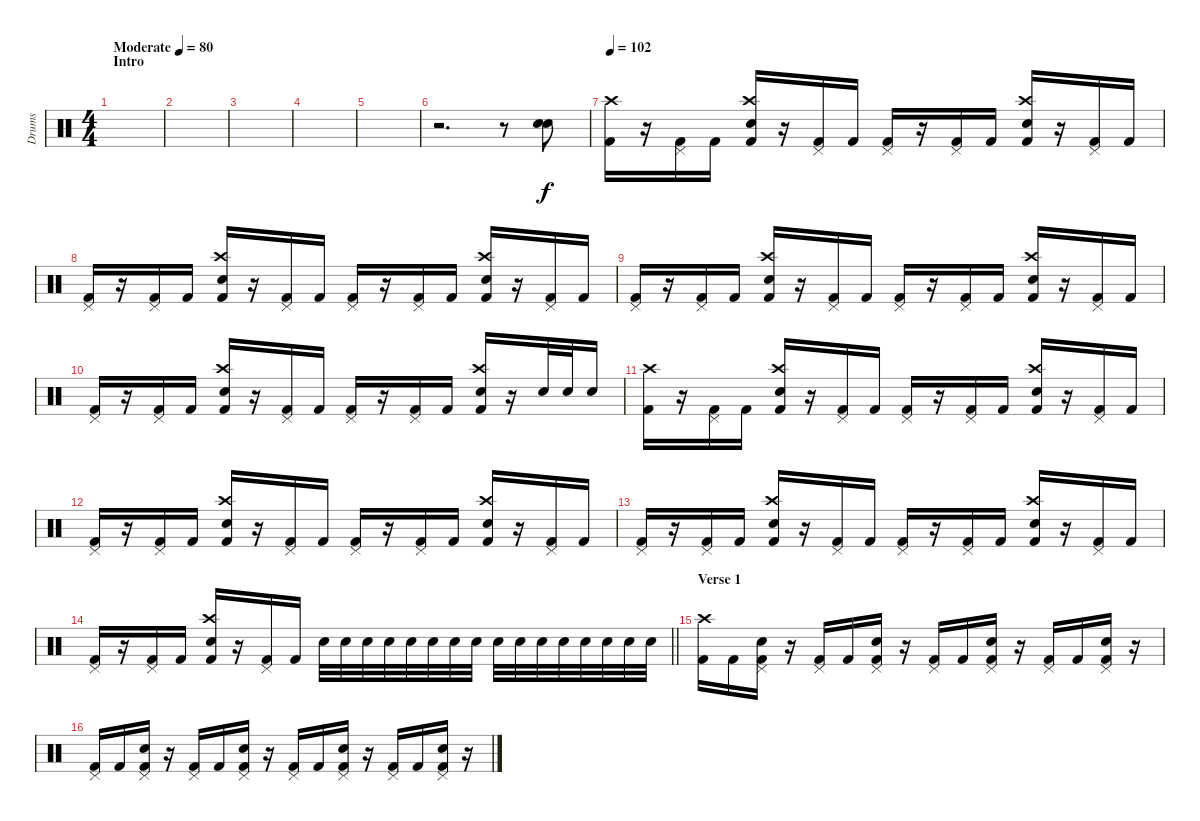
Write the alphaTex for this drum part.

\track ("Drums" "Drums") {instrument percussion}
\staff {score}
\articulation defaults
\ts (4 4)
\section ("" "Intro")
\tempo (80 "Moderate")
\clef neutral
\ks c
|
|
|
|
|
r.2{d} r.8 ("Snare (hit) 2" "Snare (hit) 2").8 |
\tempo 102
("Crash high (hit)" "Kick (hit) 2").16 r.16 ("Pedal Hi-Hat (hit)" "Kick (hit) 2").16 "Kick (hit) 2".16 ("Crash high (hit)" "Snare (hit) 2" "Kick (hit) 2").16 r.16 ("Pedal Hi-Hat (hit)" "Kick (hit) 2").16 "Kick (hit) 2".16 ("Pedal Hi-Hat (hit)" "Kick (hit) 2").16 r.16 ("Pedal Hi-Hat (hit)" "Kick (hit) 2").16 "Kick (hit) 2".16 ("Crash high (hit)" "Snare (hit) 2" "Kick (hit) 2").16 r.16 ("Pedal Hi-Hat (hit)" "Kick (hit) 2").16 "Kick (hit) 2".16 |
("Pedal Hi-Hat (hit)" "Kick (hit) 2").16 r.16 ("Pedal Hi-Hat (hit)" "Kick (hit) 2").16 "Kick (hit) 2".16 ("Crash high (hit)" "Snare (hit) 2" "Kick (hit) 2").16 r.16 ("Pedal Hi-Hat (hit)" "Kick (hit) 2").16 "Kick (hit) 2".16 ("Pedal Hi-Hat (hit)" "Kick (hit) 2").16 r.16 ("Pedal Hi-Hat (hit)" "Kick (hit) 2").16 "Kick (hit) 2".16 ("Crash high (hit)" "Snare (hit) 2" "Kick (hit) 2").16 r.16 ("Pedal Hi-Hat (hit)" "Kick (hit) 2").16 "Kick (hit) 2".16 |
("Pedal Hi-Hat (hit)" "Kick (hit) 2").16 r.16 ("Pedal Hi-Hat (hit)" "Kick (hit) 2").16 "Kick (hit) 2".16 ("Crash high (hit)" "Snare (hit) 2" "Kick (hit) 2").16 r.16 ("Pedal Hi-Hat (hit)" "Kick (hit) 2").16 "Kick (hit) 2".16 ("Pedal Hi-Hat (hit)" "Kick (hit) 2").16 r.16 ("Pedal Hi-Hat (hit)" "Kick (hit) 2").16 "Kick (hit) 2".16 ("Crash high (hit)" "Snare (hit) 2" "Kick (hit) 2").16 r.16 ("Pedal Hi-Hat (hit)" "Kick (hit) 2").16 "Kick (hit) 2".16 |
("Pedal Hi-Hat (hit)" "Kick (hit) 2").16 r.16 ("Pedal Hi-Hat (hit)" "Kick (hit) 2").16 "Kick (hit) 2".16 ("Crash high (hit)" "Snare (hit) 2" "Kick (hit) 2").16 r.16 ("Pedal Hi-Hat (hit)" "Kick (hit) 2").16 "Kick (hit) 2".16 ("Pedal Hi-Hat (hit)" "Kick (hit) 2").16 r.16 ("Pedal Hi-Hat (hit)" "Kick (hit) 2").16 "Kick (hit) 2".16 ("Crash high (hit)" "Snare (hit) 2" "Kick (hit) 2").16 r.16 "Snare (hit) 2".32 "Snare (hit) 2".32 "Snare (hit) 2".16 |
("Crash high (hit)" "Kick (hit) 2").16 r.16 ("Pedal Hi-Hat (hit)" "Kick (hit) 2").16 "Kick (hit) 2".16 ("Crash high (hit)" "Snare (hit) 2" "Kick (hit) 2").16 r.16 ("Pedal Hi-Hat (hit)" "Kick (hit) 2").16 "Kick (hit) 2".16 ("Pedal Hi-Hat (hit)" "Kick (hit) 2").16 r.16 ("Pedal Hi-Hat (hit)" "Kick (hit) 2").16 "Kick (hit) 2".16 ("Crash high (hit)" "Snare (hit) 2" "Kick (hit) 2").16 r.16 ("Pedal Hi-Hat (hit)" "Kick (hit) 2").16 "Kick (hit) 2".16 |
("Pedal Hi-Hat (hit)" "Kick (hit) 2").16 r.16 ("Pedal Hi-Hat (hit)" "Kick (hit) 2").16 "Kick (hit) 2".16 ("Crash high (hit)" "Snare (hit) 2" "Kick (hit) 2").16 r.16 ("Pedal Hi-Hat (hit)" "Kick (hit) 2").16 "Kick (hit) 2".16 ("Pedal Hi-Hat (hit)" "Kick (hit) 2").16 r.16 ("Pedal Hi-Hat (hit)" "Kick (hit) 2").16 "Kick (hit) 2".16 ("Crash high (hit)" "Snare (hit) 2" "Kick (hit) 2").16 r.16 ("Pedal Hi-Hat (hit)" "Kick (hit) 2").16 "Kick (hit) 2".16 |
("Pedal Hi-Hat (hit)" "Kick (hit) 2").16 r.16 ("Pedal Hi-Hat (hit)" "Kick (hit) 2").16 "Kick (hit) 2".16 ("Crash high (hit)" "Snare (hit) 2" "Kick (hit) 2").16 r.16 ("Pedal Hi-Hat (hit)" "Kick (hit) 2").16 "Kick (hit) 2".16 ("Pedal Hi-Hat (hit)" "Kick (hit) 2").16 r.16 ("Pedal Hi-Hat (hit)" "Kick (hit) 2").16 "Kick (hit) 2".16 ("Crash high (hit)" "Snare (hit) 2" "Kick (hit) 2").16 r.16 ("Pedal Hi-Hat (hit)" "Kick (hit) 2").16 "Kick (hit) 2".16 |
\barLineRight lightlight
("Pedal Hi-Hat (hit)" "Kick (hit) 2").16 r.16 ("Pedal Hi-Hat (hit)" "Kick (hit) 2").16 "Kick (hit) 2".16 ("Crash high (hit)" "Snare (hit) 2" "Kick (hit) 2").16 r.16 ("Pedal Hi-Hat (hit)" "Kick (hit) 2").16 "Kick (hit) 2".16 "Snare (hit) 2".32 "Snare (hit) 2".32 "Snare (hit) 2".32 "Snare (hit) 2".32 "Snare (hit) 2".32 "Snare (hit) 2".32 "Snare (hit) 2".32 "Snare (hit) 2".32 "Snare (hit) 2".32 "Snare (hit) 2".32 "Snare (hit) 2".32 "Snare (hit) 2".32 "Snare (hit) 2".32 "Snare (hit) 2".32 "Snare (hit) 2".32 "Snare (hit) 2".32 |
\section ("" "Verse 1")
("Crash high (hit)" "Kick (hit) 2").16 "Kick (hit) 2".16 ("Pedal Hi-Hat (hit)" "Snare (hit) 2" "Kick (hit) 2").16 r.16 ("Pedal Hi-Hat (hit)" "Kick (hit) 2").16 "Kick (hit) 2".16 ("Pedal Hi-Hat (hit)" "Snare (hit) 2" "Kick (hit) 2").16 r.16 ("Pedal Hi-Hat (hit)" "Kick (hit) 2").16 "Kick (hit) 2".16 ("Pedal Hi-Hat (hit)" "Snare (hit) 2" "Kick (hit) 2").16 r.16 ("Pedal Hi-Hat (hit)" "Kick (hit) 2").16 "Kick (hit) 2".16 ("Pedal Hi-Hat (hit)" "Snare (hit) 2" "Kick (hit) 2").16 r.16 |
("Pedal Hi-Hat (hit)" "Kick (hit) 2").16 "Kick (hit) 2".16 ("Pedal Hi-Hat (hit)" "Snare (hit) 2" "Kick (hit) 2").16 r.16 ("Pedal Hi-Hat (hit)" "Kick (hit) 2").16 "Kick (hit) 2".16 ("Pedal Hi-Hat (hit)" "Snare (hit) 2" "Kick (hit) 2").16 r.16 ("Pedal Hi-Hat (hit)" "Kick (hit) 2").16 "Kick (hit) 2".16 ("Pedal Hi-Hat (hit)" "Snare (hit) 2" "Kick (hit) 2").16 r.16 ("Pedal Hi-Hat (hit)" "Kick (hit) 2").16 "Kick (hit) 2".16 ("Pedal Hi-Hat (hit)" "Snare (hit) 2" "Kick (hit) 2").16 r.16
